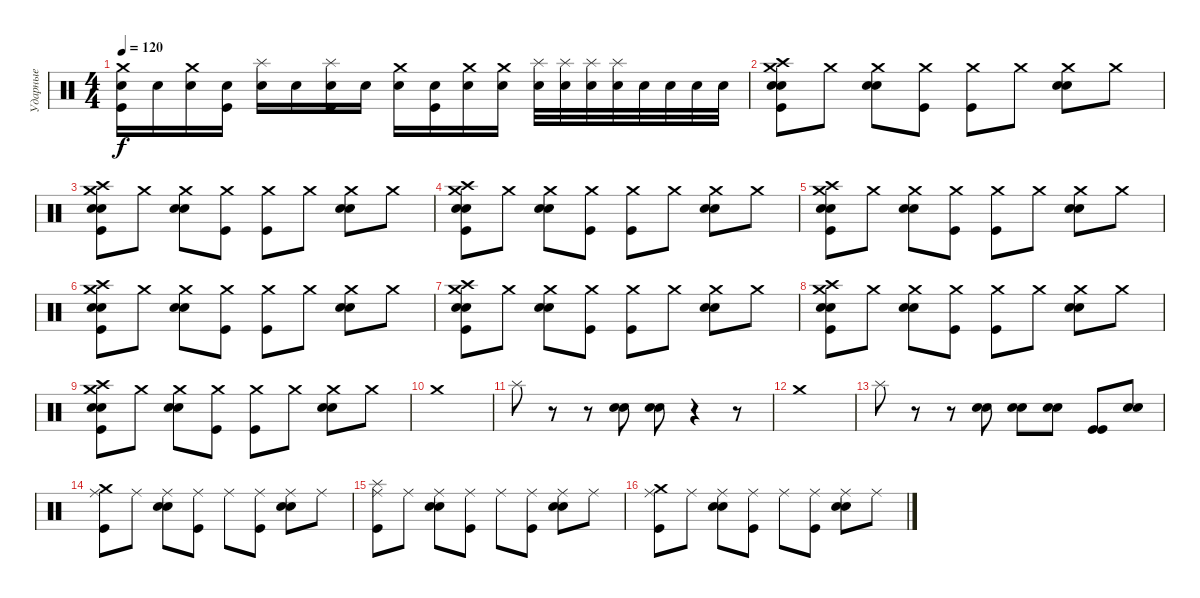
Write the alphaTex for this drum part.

\track ("Ударные" "Ударные") {instrument percussion}
\staff {score}
\articulation defaults
\ts (4 4)
\tempo 120
\clef neutral
\ks c
("Crash medium (hit)" "Snare (hit) 2" "Kick (hit)").16{dy f} "Electric Snare (hit)".16 ("Crash medium (hit)" "Snare (hit) 2").16 ("Electric Snare (hit)" "Kick (hit)").16 ("Splash (hit)" "Snare (hit) 2").16 "Electric Snare (hit)".16 ("Splash (hit)" "Snare (hit) 2" "Kick (hit)").16 "Electric Snare (hit)".16 ("Crash medium (hit)" "Snare (hit) 2").16 ("Electric Snare (hit)" "Kick (hit)").16 ("Crash medium (hit)" "Electric Snare (hit)").16 ("Crash medium (hit)" "Electric Snare (hit)").16 ("Splash (hit)" "Electric Snare (hit)").32 ("Splash (hit)" "Electric Snare (hit)").32 ("Splash (hit)" "Electric Snare (hit)").32 ("Splash (hit)" "Electric Snare (hit)").32 "Electric Snare (hit)".32 "Electric Snare (hit)".32 "Electric Snare (hit)".32 "Electric Snare (hit)".32 |
("Crash medium (hit)" "Crash high (hit)" "Electric Snare (hit)" "Electric Snare (hit)" "Kick (hit)").8 "Crash medium (hit)".8 ("Crash medium (hit)" "Electric Snare (hit)" "Electric Snare (hit)").8 ("Crash medium (hit)" "Kick (hit)").8 ("Crash medium (hit)" "Kick (hit)").8 "Crash medium (hit)".8 ("Crash medium (hit)" "Electric Snare (hit)" "Electric Snare (hit)").8 "Crash medium (hit)".8 |
("Crash medium (hit)" "Crash high (hit)" "Electric Snare (hit)" "Electric Snare (hit)" "Kick (hit)").8 "Crash medium (hit)".8 ("Crash medium (hit)" "Electric Snare (hit)" "Electric Snare (hit)").8 ("Crash medium (hit)" "Kick (hit)").8 ("Crash medium (hit)" "Kick (hit)").8 "Crash medium (hit)".8 ("Crash medium (hit)" "Electric Snare (hit)" "Electric Snare (hit)").8 "Crash medium (hit)".8 |
("Crash medium (hit)" "Crash high (hit)" "Electric Snare (hit)" "Electric Snare (hit)" "Kick (hit)").8 "Crash medium (hit)".8 ("Crash medium (hit)" "Electric Snare (hit)" "Electric Snare (hit)").8 ("Crash medium (hit)" "Kick (hit)").8 ("Crash medium (hit)" "Kick (hit)").8 "Crash medium (hit)".8 ("Crash medium (hit)" "Electric Snare (hit)" "Electric Snare (hit)").8 "Crash medium (hit)".8 |
("Crash medium (hit)" "Crash high (hit)" "Electric Snare (hit)" "Electric Snare (hit)" "Kick (hit)").8 "Crash medium (hit)".8 ("Crash medium (hit)" "Electric Snare (hit)" "Electric Snare (hit)").8 ("Crash medium (hit)" "Kick (hit)").8 ("Crash medium (hit)" "Kick (hit)").8 "Crash medium (hit)".8 ("Crash medium (hit)" "Electric Snare (hit)" "Electric Snare (hit)").8 "Crash medium (hit)".8 |
("Crash medium (hit)" "Crash high (hit)" "Electric Snare (hit)" "Electric Snare (hit)" "Kick (hit)").8 "Crash medium (hit)".8 ("Crash medium (hit)" "Electric Snare (hit)" "Electric Snare (hit)").8 ("Crash medium (hit)" "Kick (hit)").8 ("Crash medium (hit)" "Kick (hit)").8 "Crash medium (hit)".8 ("Crash medium (hit)" "Electric Snare (hit)" "Electric Snare (hit)").8 "Crash medium (hit)".8 |
("Crash medium (hit)" "Crash high (hit)" "Electric Snare (hit)" "Electric Snare (hit)" "Kick (hit)").8 "Crash medium (hit)".8 ("Crash medium (hit)" "Electric Snare (hit)" "Electric Snare (hit)").8 ("Crash medium (hit)" "Kick (hit)").8 ("Crash medium (hit)" "Kick (hit)").8 "Crash medium (hit)".8 ("Crash medium (hit)" "Electric Snare (hit)" "Electric Snare (hit)").8 "Crash medium (hit)".8 |
("Crash medium (hit)" "Crash high (hit)" "Electric Snare (hit)" "Electric Snare (hit)" "Kick (hit)").8 "Crash medium (hit)".8 ("Crash medium (hit)" "Electric Snare (hit)" "Electric Snare (hit)").8 ("Crash medium (hit)" "Kick (hit)").8 ("Crash medium (hit)" "Kick (hit)").8 "Crash medium (hit)".8 ("Crash medium (hit)" "Electric Snare (hit)" "Electric Snare (hit)").8 "Crash medium (hit)".8 |
("Crash medium (hit)" "Crash high (hit)" "Electric Snare (hit)" "Electric Snare (hit)" "Kick (hit)").8 "Crash medium (hit)".8 ("Crash medium (hit)" "Electric Snare (hit)" "Electric Snare (hit)").8 ("Crash medium (hit)" "Kick (hit)").8 ("Crash medium (hit)" "Kick (hit)").8 "Crash medium (hit)".8 ("Crash medium (hit)" "Electric Snare (hit)" "Electric Snare (hit)").8 "Crash medium (hit)".8 |
"Crash medium (hit)".1 |
"Splash (hit)".8 r.8 r.8 ("Electric Snare (hit)" "Electric Snare (hit)").8 ("Electric Snare (hit)" "Electric Snare (hit)").8 r.4 r.8 |
"Crash medium (hit)".1 |
"Splash (hit)".8 r.8 r.8 ("Electric Snare (hit)" "Electric Snare (hit)").8 ("Electric Snare (hit)" "Electric Snare (hit)").8 ("Electric Snare (hit)" "Electric Snare (hit)").8 ("Kick (hit)" "Kick (hit)").8 ("Electric Snare (hit)" "Electric Snare (hit)").8 |
("Ride (middle)" "Crash medium (hit)" "Kick (hit)").8 "Ride (middle)".8 ("Ride (middle)" "Electric Snare (hit)" "Electric Snare (hit)").8 ("Ride (middle)" "Kick (hit)").8 "Ride (middle)".8 ("Ride (middle)" "Kick (hit)").8 ("Ride (middle)" "Electric Snare (hit)" "Electric Snare (hit)").8 "Ride (middle)".8 |
("Ride (middle)" "Splash (hit)" "Kick (hit)").8 "Ride (middle)".8 ("Ride (middle)" "Electric Snare (hit)" "Electric Snare (hit)").8 ("Ride (middle)" "Kick (hit)").8 "Ride (middle)".8 ("Ride (middle)" "Kick (hit)").8 ("Ride (middle)" "Electric Snare (hit)" "Electric Snare (hit)").8 "Ride (middle)".8 |
("Ride (middle)" "Crash medium (hit)" "Kick (hit)").8 "Ride (middle)".8 ("Ride (middle)" "Electric Snare (hit)" "Electric Snare (hit)").8 ("Ride (middle)" "Kick (hit)").8 "Ride (middle)".8 ("Ride (middle)" "Kick (hit)").8 ("Ride (middle)" "Electric Snare (hit)" "Electric Snare (hit)").8 "Ride (middle)".8
